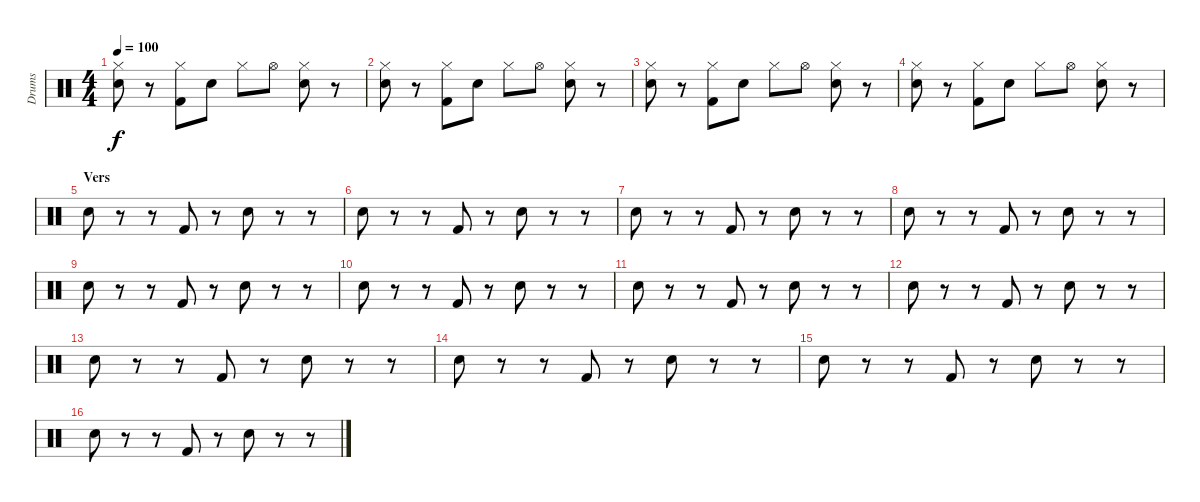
\track ("Drums" "Drums") {instrument percussion}
\staff {score}
\articulation defaults
\ts (4 4)
\tempo 100
\clef neutral
\ks c
("Hi-Hat (closed)" "Snare (hit) 2").8{dy f} r.8 ("Hi-Hat (closed)" "Kick (hit) 2").8 "Snare (hit) 2".8 "Hi-Hat (closed)".8 "Hi-Hat (open)".8 ("Hi-Hat (closed)" "Snare (hit) 2").8 r.8 |
("Hi-Hat (closed)" "Snare (hit) 2").8 r.8 ("Hi-Hat (closed)" "Kick (hit) 2").8 "Snare (hit) 2".8 "Hi-Hat (closed)".8 "Hi-Hat (open)".8 ("Hi-Hat (closed)" "Snare (hit) 2").8 r.8 |
("Hi-Hat (closed)" "Snare (hit) 2").8 r.8 ("Hi-Hat (closed)" "Kick (hit) 2").8 "Snare (hit) 2".8 "Hi-Hat (closed)".8 "Hi-Hat (open)".8 ("Hi-Hat (closed)" "Snare (hit) 2").8 r.8 |
("Hi-Hat (closed)" "Snare (hit) 2").8 r.8 ("Hi-Hat (closed)" "Kick (hit) 2").8 "Snare (hit) 2".8 "Hi-Hat (closed)".8 "Hi-Hat (open)".8 ("Hi-Hat (closed)" "Snare (hit) 2").8 r.8 |
\section ("" "Vers")
"Snare (hit) 2".8 r.8 r.8 "Kick (hit) 2".8 r.8 "Snare (hit) 2".8 r.8 r.8 |
"Snare (hit) 2".8 r.8 r.8 "Kick (hit) 2".8 r.8 "Snare (hit) 2".8 r.8 r.8 |
"Snare (hit) 2".8 r.8 r.8 "Kick (hit) 2".8 r.8 "Snare (hit) 2".8 r.8 r.8 |
"Snare (hit) 2".8 r.8 r.8 "Kick (hit) 2".8 r.8 "Snare (hit) 2".8 r.8 r.8 |
"Snare (hit) 2".8 r.8 r.8 "Kick (hit) 2".8 r.8 "Snare (hit) 2".8 r.8 r.8 |
"Snare (hit) 2".8 r.8 r.8 "Kick (hit) 2".8 r.8 "Snare (hit) 2".8 r.8 r.8 |
"Snare (hit) 2".8 r.8 r.8 "Kick (hit) 2".8 r.8 "Snare (hit) 2".8 r.8 r.8 |
"Snare (hit) 2".8 r.8 r.8 "Kick (hit) 2".8 r.8 "Snare (hit) 2".8 r.8 r.8 |
"Snare (hit) 2".8 r.8 r.8 "Kick (hit) 2".8 r.8 "Snare (hit) 2".8 r.8 r.8 |
"Snare (hit) 2".8 r.8 r.8 "Kick (hit) 2".8 r.8 "Snare (hit) 2".8 r.8 r.8 |
"Snare (hit) 2".8 r.8 r.8 "Kick (hit) 2".8 r.8 "Snare (hit) 2".8 r.8 r.8 |
"Snare (hit) 2".8 r.8 r.8 "Kick (hit) 2".8 r.8 "Snare (hit) 2".8 r.8 r.8
